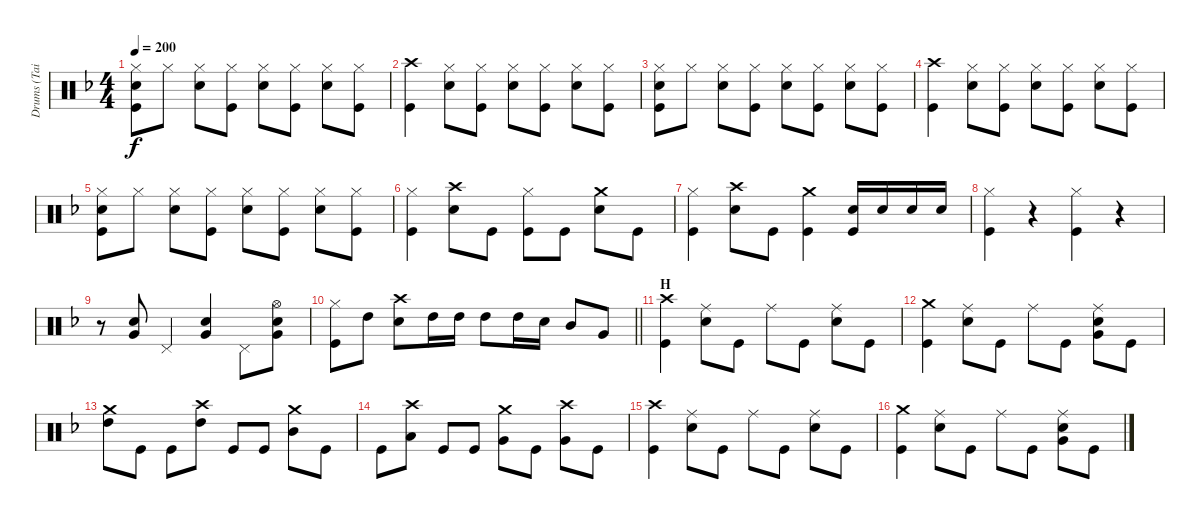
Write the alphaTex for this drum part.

\track ("Drums (Tainaka Ritsu)" "Drums (Tai") {instrument percussion}
\staff {score}
\articulation defaults
\ts (4 4)
\tempo 200
\clef neutral
\ks f
("Hi-Hat (closed)" "Snare (hit) 2" "Kick (hit)").8{dy f} "Hi-Hat (closed)".8 ("Hi-Hat (closed)" "Snare (hit) 2").8 ("Hi-Hat (closed)" "Kick (hit)").8 ("Hi-Hat (closed)" "Snare (hit) 2").8 ("Hi-Hat (closed)" "Kick (hit)").8 ("Hi-Hat (closed)" "Snare (hit) 2").8 ("Hi-Hat (closed)" "Kick (hit)").8 |
("Crash high (hit)" "Kick (hit)").4 ("Hi-Hat (closed)" "Snare (hit) 2").8 ("Hi-Hat (closed)" "Kick (hit)").8 ("Hi-Hat (closed)" "Snare (hit) 2").8 ("Hi-Hat (closed)" "Kick (hit)").8 ("Hi-Hat (closed)" "Snare (hit) 2").8 ("Hi-Hat (closed)" "Kick (hit)").8 |
("Hi-Hat (closed)" "Snare (hit) 2" "Kick (hit)").8 "Hi-Hat (closed)".8 ("Hi-Hat (closed)" "Snare (hit) 2").8 ("Hi-Hat (closed)" "Kick (hit)").8 ("Hi-Hat (closed)" "Snare (hit) 2").8 ("Hi-Hat (closed)" "Kick (hit)").8 ("Hi-Hat (closed)" "Snare (hit) 2").8 ("Hi-Hat (closed)" "Kick (hit)").8 |
("Crash high (hit)" "Kick (hit)").4 ("Hi-Hat (closed)" "Snare (hit) 2").8 ("Hi-Hat (closed)" "Kick (hit)").8 ("Hi-Hat (closed)" "Snare (hit) 2").8 ("Hi-Hat (closed)" "Kick (hit)").8 ("Hi-Hat (closed)" "Snare (hit) 2").8 ("Hi-Hat (closed)" "Kick (hit)").8 |
("Hi-Hat (closed)" "Snare (hit) 2" "Kick (hit)").8 "Hi-Hat (closed)".8 ("Hi-Hat (closed)" "Snare (hit) 2").8 ("Hi-Hat (closed)" "Kick (hit)").8 ("Hi-Hat (closed)" "Snare (hit) 2").8 ("Hi-Hat (closed)" "Kick (hit)").8 ("Hi-Hat (closed)" "Snare (hit) 2").8 ("Hi-Hat (closed)" "Kick (hit)").8 |
("Hi-Hat (closed)" "Kick (hit)").4 ("Crash high (hit)" "Snare (hit) 2").8 "Kick (hit)".8 ("Hi-Hat (closed)" "Kick (hit)").8 "Kick (hit)".8 ("Crash medium (hit)" "Snare (hit) 2").8 "Kick (hit)".8 |
("Hi-Hat (closed)" "Kick (hit)").4 ("Crash high (hit)" "Snare (hit) 2").8 "Kick (hit)".8 ("Crash medium (hit)" "Kick (hit)").4 ("Snare (hit) 2" "Kick (hit)").16 "Snare (hit) 2".16 "Snare (hit) 2".16 "Snare (hit) 2".16 |
("Hi-Hat (closed)" "Kick (hit)").4 r.4 ("Hi-Hat (closed)" "Kick (hit)").4 r.4 |
r.8 ("Snare (hit) 2" "Very Low Tom (hit)").8 "Pedal Hi-Hat (hit)".4 ("Snare (hit) 2" "Very Low Tom (hit)").4 "Pedal Hi-Hat (hit)".8 ("Hi-Hat (open)" "Snare (hit) 2" "Very Low Tom (hit)").8 |
\barLineRight lightlight
("Hi-Hat (closed)" "Kick (hit)").8 "High Tom (hit)".8 ("Crash high (hit)" "Snare (hit) 2").8 "High Tom (hit)".16 "High Tom (hit)".16 "High Tom (hit)".8 "High Tom (hit)".16 "Snare (hit) 2".16 "Mid Tom (hit)".8 "Very Low Tom (hit)".8 |
\section ("" "H")
("Crash high (hit)" "Kick (hit)").4 ("Ride (middle)" "Snare (hit) 2").8 "Kick (hit)".8 "Ride (middle)".8 "Kick (hit)".8 ("Ride (middle)" "Snare (hit) 2").8 "Kick (hit)".8 |
("Crash medium (hit)" "Kick (hit)").4 ("Ride (middle)" "Snare (hit) 2").8 "Kick (hit)".8 "Ride (middle)".8 "Kick (hit)".8 ("Ride (middle)" "Snare (hit) 2" "Very Low Tom (hit)").8 "Kick (hit)".8 |
("Crash medium (hit)" "High Tom (hit)").8 "Kick (hit)".8 "Kick (hit)".8 ("Crash high (hit)" "High Tom (hit)").8 "Kick (hit)".8 "Kick (hit)".8 ("Crash medium (hit)" "Mid Tom (hit)").8 "Kick (hit)".8 |
"Kick (hit)".8 ("Crash high (hit)" "Low Tom (hit)").8 "Kick (hit)".8 "Kick (hit)".8 ("Crash medium (hit)" "Very Low Tom (hit)").8 "Kick (hit)".8 ("Crash high (hit)" "Very Low Tom (hit)").8 "Kick (hit)".8 |
("Crash high (hit)" "Kick (hit)").4 ("Ride (middle)" "Snare (hit) 2").8 "Kick (hit)".8 "Ride (middle)".8 "Kick (hit)".8 ("Ride (middle)" "Snare (hit) 2").8 "Kick (hit)".8 |
("Crash medium (hit)" "Kick (hit)").4 ("Ride (middle)" "Snare (hit) 2").8 "Kick (hit)".8 "Ride (middle)".8 "Kick (hit)".8 ("Ride (middle)" "Snare (hit) 2" "Very Low Tom (hit)").8 "Kick (hit)".8
